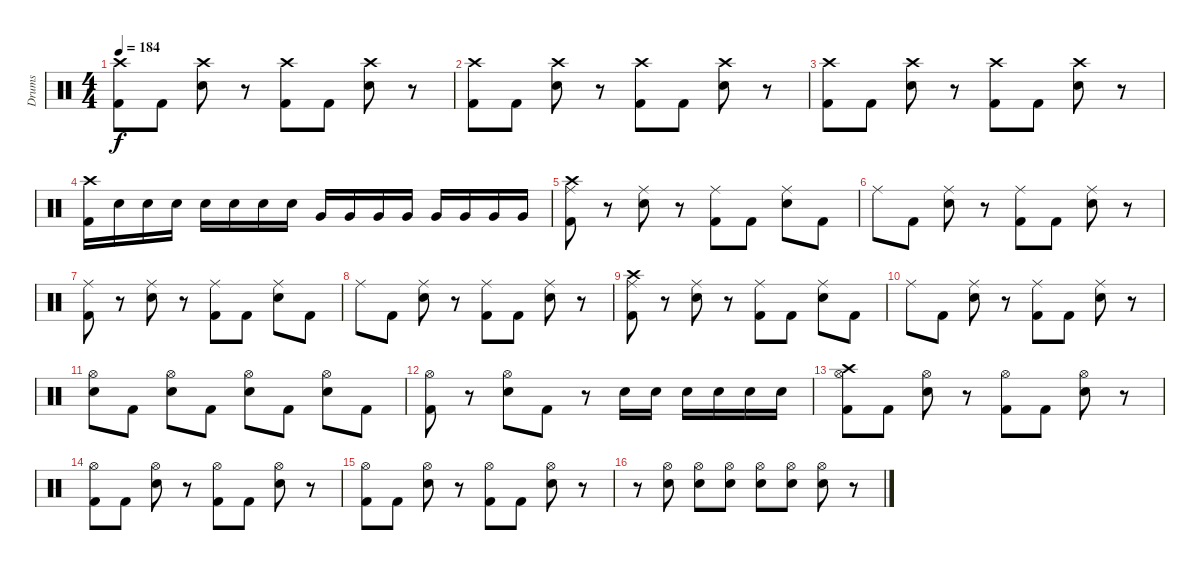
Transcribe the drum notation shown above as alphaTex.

\track ("Drums" "Drums") {instrument percussion}
\staff {score}
\articulation defaults
\ts (4 4)
\tempo 184
\clef neutral
\ks c
("Crash high (hit)" "Kick (hit) 2").8{dy f} "Kick (hit) 2".8 ("Crash high (hit)" "Snare (hit) 2").8 r.8 ("Crash high (hit)" "Kick (hit) 2").8 "Kick (hit) 2".8 ("Crash high (hit)" "Snare (hit) 2").8 r.8 |
("Crash high (hit)" "Kick (hit) 2").8 "Kick (hit) 2".8 ("Crash high (hit)" "Snare (hit) 2").8 r.8 ("Crash high (hit)" "Kick (hit) 2").8 "Kick (hit) 2".8 ("Crash high (hit)" "Snare (hit) 2").8 r.8 |
("Crash high (hit)" "Kick (hit) 2").8 "Kick (hit) 2".8 ("Crash high (hit)" "Snare (hit) 2").8 r.8 ("Crash high (hit)" "Kick (hit) 2").8 "Kick (hit) 2".8 ("Crash high (hit)" "Snare (hit) 2").8 r.8 |
("Crash high (hit)" "Kick (hit) 2").16 "Snare (hit) 2".16 "Snare (hit) 2".16 "Snare (hit) 2".16 "Snare (hit) 2".16 "Snare (hit) 2".16 "Snare (hit) 2".16 "Snare (hit) 2".16 "Very Low Tom (hit)".16 "Very Low Tom (hit)".16 "Very Low Tom (hit)".16 "Very Low Tom (hit)".16 "Very Low Tom (hit)".16 "Very Low Tom (hit)".16 "Very Low Tom (hit)".16 "Very Low Tom (hit)".16 |
("Crash high (hit)" "Ride (middle)" "Kick (hit) 2").8 r.8 ("Ride (middle)" "Snare (hit) 2").8 r.8 ("Ride (middle)" "Kick (hit) 2").8 "Kick (hit) 2".8 ("Ride (middle)" "Snare (hit) 2").8 "Kick (hit) 2".8 |
"Ride (middle)".8 "Kick (hit) 2".8 ("Ride (middle)" "Snare (hit) 2").8 r.8 ("Ride (middle)" "Kick (hit) 2").8 "Kick (hit) 2".8 ("Ride (middle)" "Snare (hit) 2").8 r.8 |
("Ride (middle)" "Kick (hit) 2").8 r.8 ("Ride (middle)" "Snare (hit) 2").8 r.8 ("Ride (middle)" "Kick (hit) 2").8 "Kick (hit) 2".8 ("Ride (middle)" "Snare (hit) 2").8 "Kick (hit) 2".8 |
"Ride (middle)".8 "Kick (hit) 2".8 ("Ride (middle)" "Snare (hit) 2").8 r.8 ("Ride (middle)" "Kick (hit) 2").8 "Kick (hit) 2".8 ("Ride (middle)" "Snare (hit) 2").8 r.8 |
("Crash high (hit)" "Ride (middle)" "Kick (hit) 2").8 r.8 ("Ride (middle)" "Snare (hit) 2").8 r.8 ("Ride (middle)" "Kick (hit) 2").8 "Kick (hit) 2".8 ("Ride (middle)" "Snare (hit) 2").8 "Kick (hit) 2".8 |
"Ride (middle)".8 "Kick (hit) 2".8 ("Ride (middle)" "Snare (hit) 2").8 r.8 ("Ride (middle)" "Kick (hit) 2").8 "Kick (hit) 2".8 ("Ride (middle)" "Snare (hit) 2").8 r.8 |
("Hi-Hat (open)" "Snare (hit) 2").8 "Kick (hit) 2".8 ("Hi-Hat (open)" "Snare (hit) 2").8 "Kick (hit) 2".8 ("Hi-Hat (open)" "Snare (hit) 2").8 "Kick (hit) 2".8 ("Hi-Hat (open)" "Snare (hit) 2").8 "Kick (hit) 2".8 |
("Hi-Hat (open)" "Kick (hit) 2").8 r.8 ("Hi-Hat (open)" "Snare (hit) 2").8 "Kick (hit) 2".8 r.8 "Snare (hit) 2".16 "Snare (hit) 2".16 "Snare (hit) 2".16 "Snare (hit) 2".16 "Snare (hit) 2".16 "Snare (hit) 2".16 |
("Crash high (hit)" "Hi-Hat (open)" "Kick (hit) 2").8 "Kick (hit) 2".8 ("Hi-Hat (open)" "Snare (hit) 2").8 r.8 ("Hi-Hat (open)" "Kick (hit) 2").8 "Kick (hit) 2".8 ("Hi-Hat (open)" "Snare (hit) 2").8 r.8 |
("Hi-Hat (open)" "Kick (hit) 2").8 "Kick (hit) 2".8 ("Hi-Hat (open)" "Snare (hit) 2").8 r.8 ("Hi-Hat (open)" "Kick (hit) 2").8 "Kick (hit) 2".8 ("Hi-Hat (open)" "Snare (hit) 2").8 r.8 |
("Hi-Hat (open)" "Kick (hit) 2").8 "Kick (hit) 2".8 ("Hi-Hat (open)" "Snare (hit) 2").8 r.8 ("Hi-Hat (open)" "Kick (hit) 2").8 "Kick (hit) 2".8 ("Hi-Hat (open)" "Snare (hit) 2").8 r.8 |
r.8 ("Hi-Hat (open)" "Snare (hit) 2").8 ("Hi-Hat (open)" "Snare (hit) 2").8 ("Hi-Hat (open)" "Snare (hit) 2").8 ("Hi-Hat (open)" "Snare (hit) 2").8 ("Hi-Hat (open)" "Snare (hit) 2").8 ("Hi-Hat (open)" "Snare (hit) 2").8 r.8
